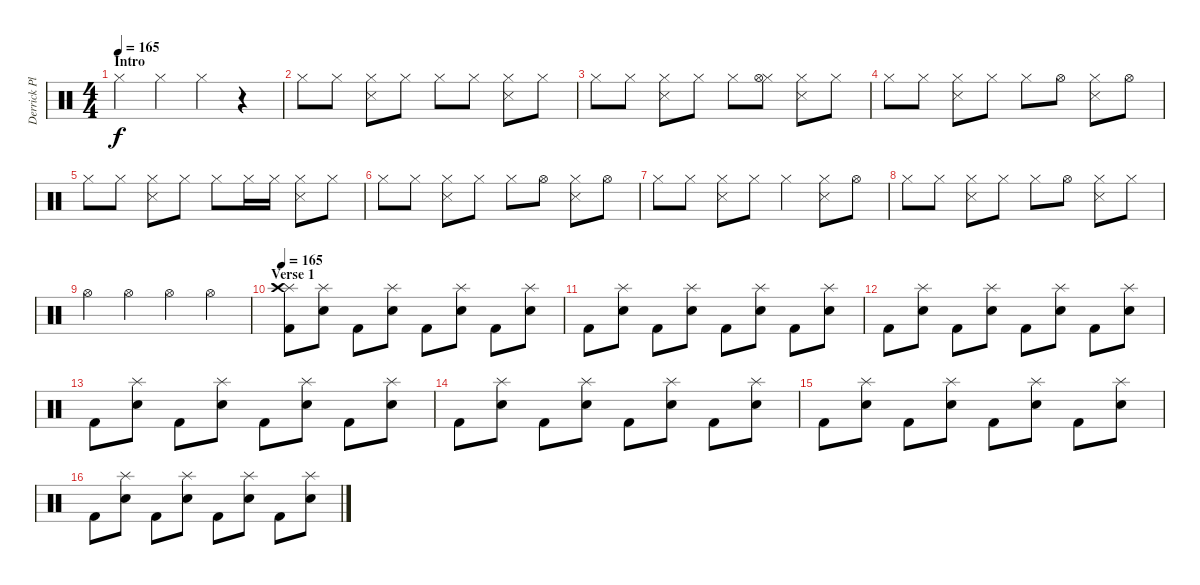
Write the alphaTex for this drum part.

\track ("Derrick Plourde (R.I.P.)" "Derrick Pl") {instrument percussion}
\staff {score}
\articulation defaults
\ts (4 4)
\section ("" "Intro")
\tempo 165
\tempo 150
\tempo 165
\clef neutral
\ks c "Hi-Hat (closed)".4{dy f} "Hi-Hat (closed)".4 "Hi-Hat (closed)".4
r.4 |
"Hi-Hat (closed)".8 "Hi-Hat (closed)".8 ("Hi-Hat (closed)" "Snare (side stick) 3").8 "Hi-Hat (closed)".8 "Hi-Hat (closed)".8 "Hi-Hat (closed)".8 ("Hi-Hat (closed)" "Snare (side stick) 3").8 "Hi-Hat (closed)".8 |
"Hi-Hat (closed)".8 "Hi-Hat (closed)".8 ("Hi-Hat (closed)" "Snare (side stick) 3").8 "Hi-Hat (closed)".8 "Hi-Hat (closed)".8 ("Hi-Hat (closed)" "Hi-Hat (open)").8 ("Hi-Hat (closed)" "Snare (side stick) 3").8 "Hi-Hat (closed)".8 |
"Hi-Hat (closed)".8 "Hi-Hat (closed)".8 ("Hi-Hat (closed)" "Snare (side stick) 3").8 "Hi-Hat (closed)".8 "Hi-Hat (closed)".8 "Hi-Hat (open)".8 ("Hi-Hat (closed)" "Snare (side stick) 3").8 "Hi-Hat (open)".8 |
"Hi-Hat (closed)".8 "Hi-Hat (closed)".8 ("Hi-Hat (closed)" "Snare (side stick) 3").8 "Hi-Hat (closed)".8 "Hi-Hat (closed)".8 "Hi-Hat (closed)".16 "Hi-Hat (closed)".16 ("Hi-Hat (closed)" "Snare (side stick) 3").8 "Hi-Hat (closed)".8 |
"Hi-Hat (closed)".8 "Hi-Hat (closed)".8 ("Hi-Hat (closed)" "Snare (side stick) 3").8 "Hi-Hat (closed)".8 "Hi-Hat (closed)".8 "Hi-Hat (open)".8 ("Hi-Hat (closed)" "Snare (side stick) 3").8 "Hi-Hat (open)".8 |
"Hi-Hat (closed)".8 "Hi-Hat (closed)".8 ("Hi-Hat (closed)" "Snare (side stick) 3").8 "Hi-Hat (closed)".8 "Hi-Hat (closed)".4 ("Hi-Hat (closed)" "Snare (side stick) 3").8 "Hi-Hat (open)".8 |
"Hi-Hat (closed)".8 "Hi-Hat (closed)".8 ("Hi-Hat (closed)" "Snare (side stick) 3").8 "Hi-Hat (closed)".8 "Hi-Hat (closed)".8 "Hi-Hat (open)".8 ("Hi-Hat (closed)" "Snare (side stick) 3").8 "Hi-Hat (closed)".8 |
"Hi-Hat (open)".4 "Hi-Hat (open)".4 "Hi-Hat (open)".4 "Hi-Hat (open)".4 |
\section ("" "Verse 1")
\tempo 165
("Kick (hit) 2" "Splash (hit)" "Crash high (hit)").8 ("Electric Snare (hit)" "Splash (hit)").8 "Kick (hit) 2".8 ("Electric Snare (hit)" "Splash (hit)").8 "Kick (hit) 2".8 ("Electric Snare (hit)" "Splash (hit)").8 "Kick (hit) 2".8 ("Electric Snare (hit)" "Splash (hit)").8 |
"Kick (hit) 2".8 ("Electric Snare (hit)" "Splash (hit)").8 "Kick (hit) 2".8 ("Electric Snare (hit)" "Splash (hit)").8 "Kick (hit) 2".8 ("Electric Snare (hit)" "Splash (hit)").8 "Kick (hit) 2".8 ("Electric Snare (hit)" "Splash (hit)").8 |
"Kick (hit) 2".8 ("Electric Snare (hit)" "Splash (hit)").8 "Kick (hit) 2".8 ("Electric Snare (hit)" "Splash (hit)").8 "Kick (hit) 2".8 ("Electric Snare (hit)" "Splash (hit)").8 "Kick (hit) 2".8 ("Electric Snare (hit)" "Splash (hit)").8 |
"Kick (hit) 2".8 ("Electric Snare (hit)" "Splash (hit)").8 "Kick (hit) 2".8 ("Electric Snare (hit)" "Splash (hit)").8 "Kick (hit) 2".8 ("Electric Snare (hit)" "Splash (hit)").8 "Kick (hit) 2".8 ("Electric Snare (hit)" "Splash (hit)").8 |
"Kick (hit) 2".8 ("Electric Snare (hit)" "Splash (hit)").8 "Kick (hit) 2".8 ("Electric Snare (hit)" "Splash (hit)").8 "Kick (hit) 2".8 ("Electric Snare (hit)" "Splash (hit)").8 "Kick (hit) 2".8 ("Electric Snare (hit)" "Splash (hit)").8 |
"Kick (hit) 2".8 ("Electric Snare (hit)" "Splash (hit)").8 "Kick (hit) 2".8 ("Electric Snare (hit)" "Splash (hit)").8 "Kick (hit) 2".8 ("Electric Snare (hit)" "Splash (hit)").8 "Kick (hit) 2".8 ("Electric Snare (hit)" "Splash (hit)").8 |
"Kick (hit) 2".8 ("Electric Snare (hit)" "Splash (hit)").8 "Kick (hit) 2".8 ("Electric Snare (hit)" "Splash (hit)").8 "Kick (hit) 2".8 ("Electric Snare (hit)" "Splash (hit)").8 "Kick (hit) 2".8 ("Electric Snare (hit)" "Splash (hit)").8
